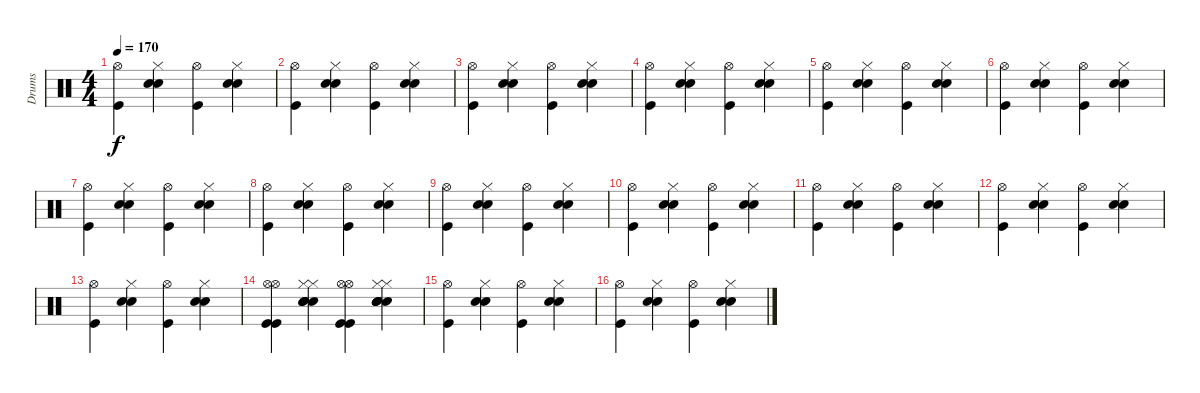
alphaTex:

\track ("Drums" "Drums") {instrument percussion}
\staff {score}
\articulation defaults
\ts (4 4)
\tempo 170
\clef neutral
\ks c
("Hi-Hat (open)" "Kick (hit)").4{dy f} ("Hi-Hat (closed)" "Snare (hit) 2" "Electric Snare (hit)").4 ("Hi-Hat (open)" "Kick (hit)").4 ("Hi-Hat (closed)" "Snare (hit) 2" "Electric Snare (hit)").4 |
("Hi-Hat (open)" "Kick (hit)").4 ("Hi-Hat (closed)" "Snare (hit) 2" "Electric Snare (hit)").4 ("Hi-Hat (open)" "Kick (hit)").4 ("Hi-Hat (closed)" "Snare (hit) 2" "Electric Snare (hit)").4 |
("Hi-Hat (open)" "Kick (hit)").4 ("Hi-Hat (closed)" "Snare (hit) 2" "Electric Snare (hit)").4 ("Hi-Hat (open)" "Kick (hit)").4 ("Hi-Hat (closed)" "Snare (hit) 2" "Electric Snare (hit)").4 |
("Hi-Hat (open)" "Kick (hit)").4 ("Hi-Hat (closed)" "Snare (hit) 2" "Electric Snare (hit)").4 ("Hi-Hat (open)" "Kick (hit)").4 ("Hi-Hat (closed)" "Snare (hit) 2" "Electric Snare (hit)").4 |
("Hi-Hat (open)" "Kick (hit)").4 ("Hi-Hat (closed)" "Snare (hit) 2" "Electric Snare (hit)").4 ("Hi-Hat (open)" "Kick (hit)").4 ("Hi-Hat (closed)" "Snare (hit) 2" "Electric Snare (hit)").4 |
("Hi-Hat (open)" "Kick (hit)").4 ("Hi-Hat (closed)" "Snare (hit) 2" "Electric Snare (hit)").4 ("Hi-Hat (open)" "Kick (hit)").4 ("Hi-Hat (closed)" "Snare (hit) 2" "Electric Snare (hit)").4 |
("Hi-Hat (open)" "Kick (hit)").4 ("Hi-Hat (closed)" "Snare (hit) 2" "Electric Snare (hit)").4 ("Hi-Hat (open)" "Kick (hit)").4 ("Hi-Hat (closed)" "Snare (hit) 2" "Electric Snare (hit)").4 |
("Hi-Hat (open)" "Kick (hit)").4 ("Hi-Hat (closed)" "Snare (hit) 2" "Electric Snare (hit)").4 ("Hi-Hat (open)" "Kick (hit)").4 ("Hi-Hat (closed)" "Snare (hit) 2" "Electric Snare (hit)").4 |
("Hi-Hat (open)" "Kick (hit)").4 ("Hi-Hat (closed)" "Snare (hit) 2" "Electric Snare (hit)").4 ("Hi-Hat (open)" "Kick (hit)").4 ("Hi-Hat (closed)" "Snare (hit) 2" "Electric Snare (hit)").4 |
("Hi-Hat (open)" "Kick (hit)").4 ("Hi-Hat (closed)" "Snare (hit) 2" "Electric Snare (hit)").4 ("Hi-Hat (open)" "Kick (hit)").4 ("Hi-Hat (closed)" "Snare (hit) 2" "Electric Snare (hit)").4 |
("Hi-Hat (open)" "Kick (hit)").4 ("Hi-Hat (closed)" "Snare (hit) 2" "Electric Snare (hit)").4 ("Hi-Hat (open)" "Kick (hit)").4 ("Hi-Hat (closed)" "Snare (hit) 2" "Electric Snare (hit)").4 |
("Hi-Hat (open)" "Kick (hit)").4 ("Hi-Hat (closed)" "Snare (hit) 2" "Electric Snare (hit)").4 ("Hi-Hat (open)" "Kick (hit)").4 ("Hi-Hat (closed)" "Snare (hit) 2" "Electric Snare (hit)").4 |
("Hi-Hat (open)" "Kick (hit)").4 ("Hi-Hat (closed)" "Snare (hit) 2" "Electric Snare (hit)").4 ("Hi-Hat (open)" "Kick (hit)").4 ("Hi-Hat (closed)" "Snare (hit) 2" "Electric Snare (hit)").4 |
("Hi-Hat (open)" "Kick (hit)" "Hi-Hat (open)" "Kick (hit)").4 ("Hi-Hat (closed)" "Snare (hit) 2" "Electric Snare (hit)" "Hi-Hat (closed)" "Snare (hit) 2" "Electric Snare (hit)").4 ("Hi-Hat (open)" "Kick (hit)" "Hi-Hat (open)" "Kick (hit)").4 ("Hi-Hat (closed)" "Snare (hit) 2" "Electric Snare (hit)" "Hi-Hat (closed)" "Snare (hit) 2" "Electric Snare (hit)").4 |
("Hi-Hat (open)" "Kick (hit)").4 ("Hi-Hat (closed)" "Snare (hit) 2" "Electric Snare (hit)").4 ("Hi-Hat (open)" "Kick (hit)").4 ("Hi-Hat (closed)" "Snare (hit) 2" "Electric Snare (hit)").4 |
("Hi-Hat (open)" "Kick (hit)").4 ("Hi-Hat (closed)" "Snare (hit) 2" "Electric Snare (hit)").4 ("Hi-Hat (open)" "Kick (hit)").4 ("Hi-Hat (closed)" "Snare (hit) 2" "Electric Snare (hit)").4
